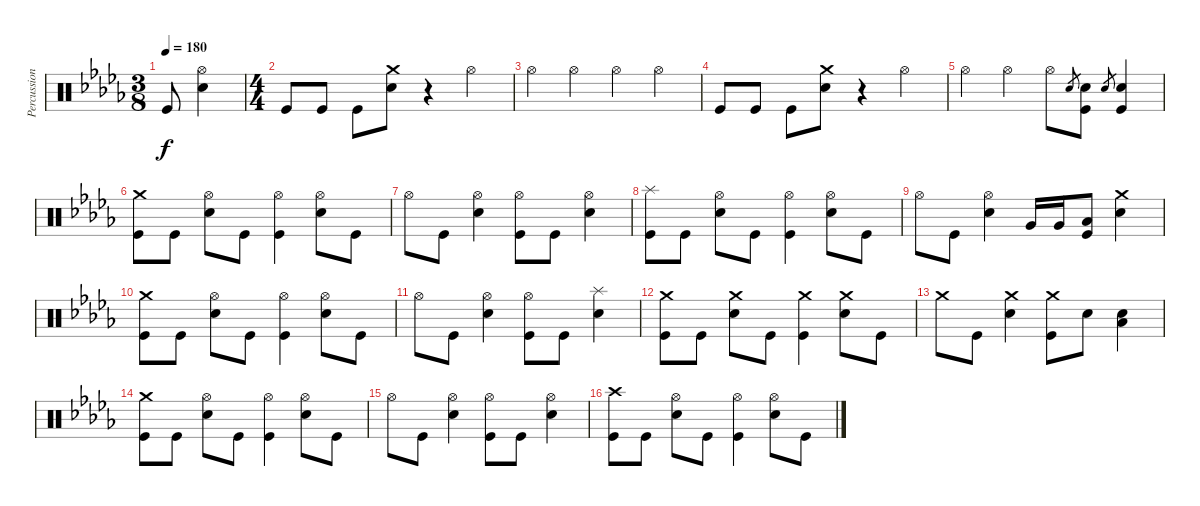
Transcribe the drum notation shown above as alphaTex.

\track ("Percussion" "Percussion") {instrument percussion}
\staff {score}
\articulation defaults
\ts (3 8)
\tempo 180
\clef neutral
\ks db "Kick (hit)".8{dy f}
("Hi-Hat (open)" "Electric Snare (hit)").4 |
\ts (4 4)
"Kick (hit)".8 "Kick (hit)".8 "Kick (hit)".8 ("Crash medium (hit)" "Electric Snare (hit)").8 r.4 "Hi-Hat (open)".4 |
"Hi-Hat (open)".4 "Hi-Hat (open)".4 "Hi-Hat (open)".4 "Hi-Hat (open)".4 |
"Kick (hit)".8 "Kick (hit)".8 "Kick (hit)".8 ("Crash medium (hit)" "Electric Snare (hit)").8 r.4 "Hi-Hat (open)".4 |
"Hi-Hat (open)".4 "Hi-Hat (open)".4 "Hi-Hat (open)".8 "Electric Snare (hit)".8{gr} ("Electric Snare (hit)" "Kick (hit)").8 "Electric Snare (hit)".8{gr} ("Electric Snare (hit)" "Kick (hit)").4 |
("Crash medium (hit)" "Kick (hit)").8 "Kick (hit)".8 ("Hi-Hat (open)" "Electric Snare (hit)").8 "Kick (hit)".8 ("Hi-Hat (open)" "Kick (hit)").4 ("Hi-Hat (open)" "Electric Snare (hit)").8 "Kick (hit)".8 |
"Hi-Hat (open)".8 "Kick (hit)".8 ("Hi-Hat (open)" "Electric Snare (hit)").4 ("Hi-Hat (open)" "Kick (hit)").8 "Kick (hit)".8 ("Hi-Hat (open)" "Electric Snare (hit)").4 |
("Splash (hit)" "Kick (hit)").8 "Kick (hit)".8 ("Hi-Hat (open)" "Electric Snare (hit)").8 "Kick (hit)".8 ("Hi-Hat (open)" "Kick (hit)").4 ("Hi-Hat (open)" "Electric Snare (hit)").8 "Kick (hit)".8 |
"Hi-Hat (open)".8 "Kick (hit)".8 ("Hi-Hat (open)" "Electric Snare (hit)").4 "Very Low Tom (hit)".16 "Very Low Tom (hit)".16 ("Low Floor Tom (hit)" "Kick (hit)").8 ("Crash medium (hit)" "Electric Snare (hit)").4 |
("Crash medium (hit)" "Kick (hit)").8 "Kick (hit)".8 ("Hi-Hat (open)" "Electric Snare (hit)").8 "Kick (hit)".8 ("Hi-Hat (open)" "Kick (hit)").4 ("Hi-Hat (open)" "Electric Snare (hit)").8 "Kick (hit)".8 |
"Hi-Hat (open)".8 "Kick (hit)".8 ("Hi-Hat (open)" "Electric Snare (hit)").4 ("Hi-Hat (open)" "Kick (hit)").8 "Kick (hit)".8 ("Splash (hit)" "Electric Snare (hit)").4 |
("Crash medium (hit)" "Kick (hit)").8 "Kick (hit)".8 ("Crash medium (hit)" "Electric Snare (hit)").8 "Kick (hit)".8 ("Crash medium (hit)" "Kick (hit)").4 ("Crash medium (hit)" "Electric Snare (hit)").8 "Kick (hit)".8 |
"Crash medium (hit)".8 "Kick (hit)".8 ("Crash medium (hit)" "Electric Snare (hit)").4 ("Crash medium (hit)" "Kick (hit)").8 "Electric Snare (hit)".8 ("Electric Snare (hit)" "Low Floor Tom (hit)").4 |
("Crash medium (hit)" "Kick (hit)").8 "Kick (hit)".8 ("Hi-Hat (open)" "Electric Snare (hit)").8 "Kick (hit)".8 ("Hi-Hat (open)" "Kick (hit)").4 ("Hi-Hat (open)" "Electric Snare (hit)").8 "Kick (hit)".8 |
"Hi-Hat (open)".8 "Kick (hit)".8 ("Hi-Hat (open)" "Electric Snare (hit)").4 ("Hi-Hat (open)" "Kick (hit)").8 "Kick (hit)".8 ("Hi-Hat (open)" "Electric Snare (hit)").4 |
("Crash high (hit)" "Kick (hit)").8 "Kick (hit)".8 ("Hi-Hat (open)" "Electric Snare (hit)").8 "Kick (hit)".8 ("Hi-Hat (open)" "Kick (hit)").4 ("Hi-Hat (open)" "Electric Snare (hit)").8 "Kick (hit)".8
